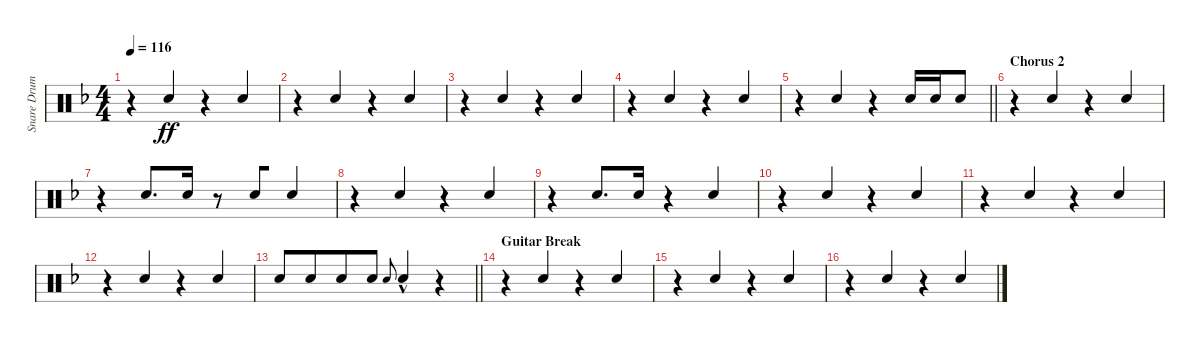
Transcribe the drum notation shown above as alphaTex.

\track ("Snare Drum" "Snare Drum") {instrument percussion}
\staff {score}
\articulation defaults
\ts (4 4)
\tempo 116
\clef neutral
\ks f
r.4{dy ff beam merge} "Electric Snare (hit)".4{beam Up} r.4{beam merge} "Electric Snare (hit)".4{beam Up} |
r.4{beam merge} "Electric Snare (hit)".4{beam Up} r.4{beam merge} "Electric Snare (hit)".4{beam Up} |
r.4{beam merge} "Electric Snare (hit)".4{beam Up} r.4{beam merge} "Electric Snare (hit)".4{beam Up} |
r.4{beam merge} "Electric Snare (hit)".4{beam Up} r.4{beam merge} "Electric Snare (hit)".4{beam Up} |
\barLineRight lightlight
r.4{beam merge} "Electric Snare (hit)".4{beam Up} r.4 "Electric Snare (hit)".16{beam Up} "Electric Snare (hit)".16{beam Up} "Electric Snare (hit)".8{beam Up} |
\section ("" "Chorus 2")
r.4{beam merge} "Electric Snare (hit)".4{beam Up} r.4{beam merge} "Electric Snare (hit)".4{beam Up} |
r.4 "Electric Snare (hit)".8{d beam Up} "Electric Snare (hit)".16{beam Up} r.8 "Electric Snare (hit)".8{beam Up beam merge} "Electric Snare (hit)".4{beam Up} |
r.4{beam merge} "Electric Snare (hit)".4{beam Up} r.4{beam merge} "Electric Snare (hit)".4{beam Up} |
r.4 "Electric Snare (hit)".8{d beam Up} "Electric Snare (hit)".16{beam Up} r.4 "Electric Snare (hit)".4{beam Up} |
r.4{beam merge} "Electric Snare (hit)".4{beam Up} r.4{beam merge} "Electric Snare (hit)".4{beam Up} |
r.4{beam merge} "Electric Snare (hit)".4{beam Up} r.4{beam merge} "Electric Snare (hit)".4{beam Up} |
r.4{beam merge} "Electric Snare (hit)".4{beam Up} r.4{beam merge} "Electric Snare (hit)".4{beam Up} |
\barLineRight lightlight "Electric Snare (hit)".8{beam Up} "Electric Snare (hit)".8{beam Up beam merge} "Electric Snare (hit)".8{beam Up} "Electric Snare (hit)".8{beam Up} "Electric Snare (hit)".8{gr onbeat} "Electric Snare (hit)"{hac}.4{beam Up}
r.4{beam Up} |
\section ("" "Guitar Break")
r.4{beam merge} "Electric Snare (hit)".4{beam Up} r.4{beam merge} "Electric Snare (hit)".4{beam Up} |
r.4{beam merge} "Electric Snare (hit)".4{beam Up} r.4{beam merge} "Electric Snare (hit)".4{beam Up} |
r.4{beam merge} "Electric Snare (hit)".4{beam Up} r.4{beam merge} "Electric Snare (hit)".4{beam Up}
